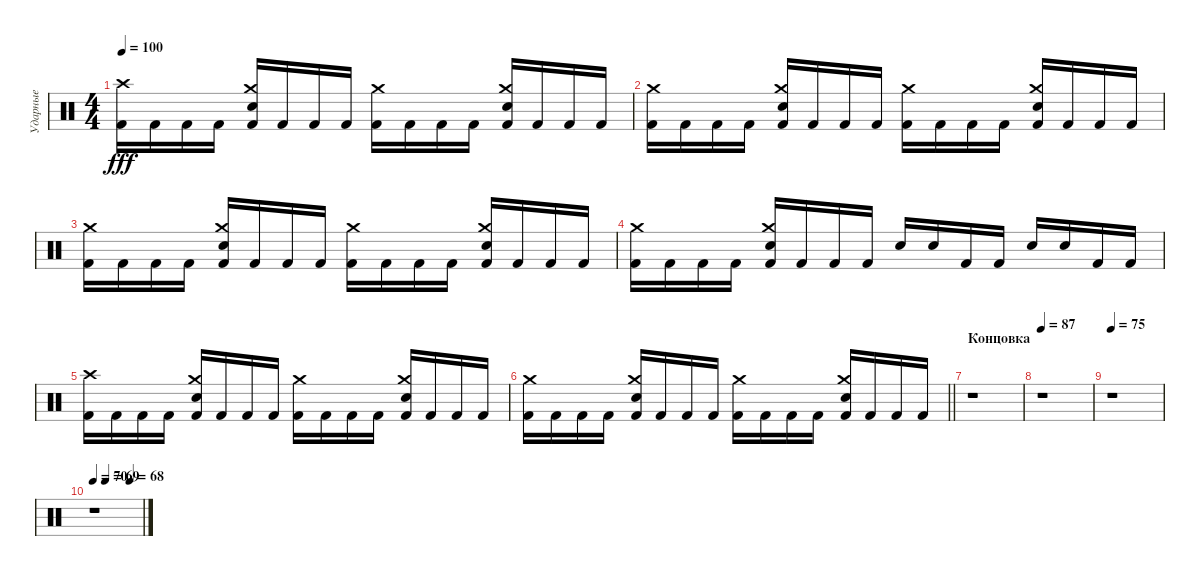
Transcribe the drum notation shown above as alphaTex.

\track ("Ударные" "Ударные") {instrument percussion}
\staff {score}
\articulation defaults
\ts (4 4)
\tempo 100
\clef neutral
\ks c
("Crash high (hit)" "Kick (hit) 2").16{dy fff} "Kick (hit) 2".16 "Kick (hit) 2".16 "Kick (hit) 2".16 ("Crash medium (hit)" "Electric Snare (hit)" "Kick (hit) 2").16 "Kick (hit) 2".16 "Kick (hit) 2".16 "Kick (hit) 2".16 ("Crash medium (hit)" "Kick (hit) 2").16 "Kick (hit) 2".16 "Kick (hit) 2".16 "Kick (hit) 2".16 ("Crash medium (hit)" "Electric Snare (hit)" "Kick (hit) 2").16 "Kick (hit) 2".16 "Kick (hit) 2".16 "Kick (hit) 2".16 |
("Crash medium (hit)" "Kick (hit) 2").16 "Kick (hit) 2".16 "Kick (hit) 2".16 "Kick (hit) 2".16 ("Crash medium (hit)" "Electric Snare (hit)" "Kick (hit) 2").16 "Kick (hit) 2".16 "Kick (hit) 2".16 "Kick (hit) 2".16 ("Crash medium (hit)" "Kick (hit) 2").16 "Kick (hit) 2".16 "Kick (hit) 2".16 "Kick (hit) 2".16 ("Crash medium (hit)" "Electric Snare (hit)" "Kick (hit) 2").16 "Kick (hit) 2".16 "Kick (hit) 2".16 "Kick (hit) 2".16 |
("Crash medium (hit)" "Kick (hit) 2").16 "Kick (hit) 2".16 "Kick (hit) 2".16 "Kick (hit) 2".16 ("Crash medium (hit)" "Electric Snare (hit)" "Kick (hit) 2").16 "Kick (hit) 2".16 "Kick (hit) 2".16 "Kick (hit) 2".16 ("Crash medium (hit)" "Kick (hit) 2").16 "Kick (hit) 2".16 "Kick (hit) 2".16 "Kick (hit) 2".16 ("Crash medium (hit)" "Electric Snare (hit)" "Kick (hit) 2").16 "Kick (hit) 2".16 "Kick (hit) 2".16 "Kick (hit) 2".16 |
("Crash medium (hit)" "Kick (hit) 2").16 "Kick (hit) 2".16 "Kick (hit) 2".16 "Kick (hit) 2".16 ("Crash medium (hit)" "Electric Snare (hit)" "Kick (hit) 2").16 "Kick (hit) 2".16 "Kick (hit) 2".16 "Kick (hit) 2".16 "Electric Snare (hit)".16 "Electric Snare (hit)".16 "Kick (hit) 2".16 "Kick (hit) 2".16 "Electric Snare (hit)".16 "Electric Snare (hit)".16 "Kick (hit) 2".16 "Kick (hit) 2".16 |
("Crash high (hit)" "Kick (hit) 2").16 "Kick (hit) 2".16 "Kick (hit) 2".16 "Kick (hit) 2".16 ("Crash medium (hit)" "Electric Snare (hit)" "Kick (hit) 2").16 "Kick (hit) 2".16 "Kick (hit) 2".16 "Kick (hit) 2".16 ("Crash medium (hit)" "Kick (hit) 2").16 "Kick (hit) 2".16 "Kick (hit) 2".16 "Kick (hit) 2".16 ("Crash medium (hit)" "Electric Snare (hit)" "Kick (hit) 2").16 "Kick (hit) 2".16 "Kick (hit) 2".16 "Kick (hit) 2".16 |
\barLineRight lightlight
("Crash medium (hit)" "Kick (hit) 2").16 "Kick (hit) 2".16 "Kick (hit) 2".16 "Kick (hit) 2".16 ("Crash medium (hit)" "Electric Snare (hit)" "Kick (hit) 2").16 "Kick (hit) 2".16 "Kick (hit) 2".16 "Kick (hit) 2".16 ("Crash medium (hit)" "Kick (hit) 2").16 "Kick (hit) 2".16 "Kick (hit) 2".16 "Kick (hit) 2".16 ("Crash medium (hit)" "Electric Snare (hit)" "Kick (hit) 2").16 "Kick (hit) 2".16 "Kick (hit) 2".16 "Kick (hit) 2".16 |
\section ("" "Концовка")
r.1 |
\tempo 87
r.1 |
\tempo 75
r.1 |
\tempo 70
\tempo (69 0.25)
\tempo (68 0.75)
r.1
